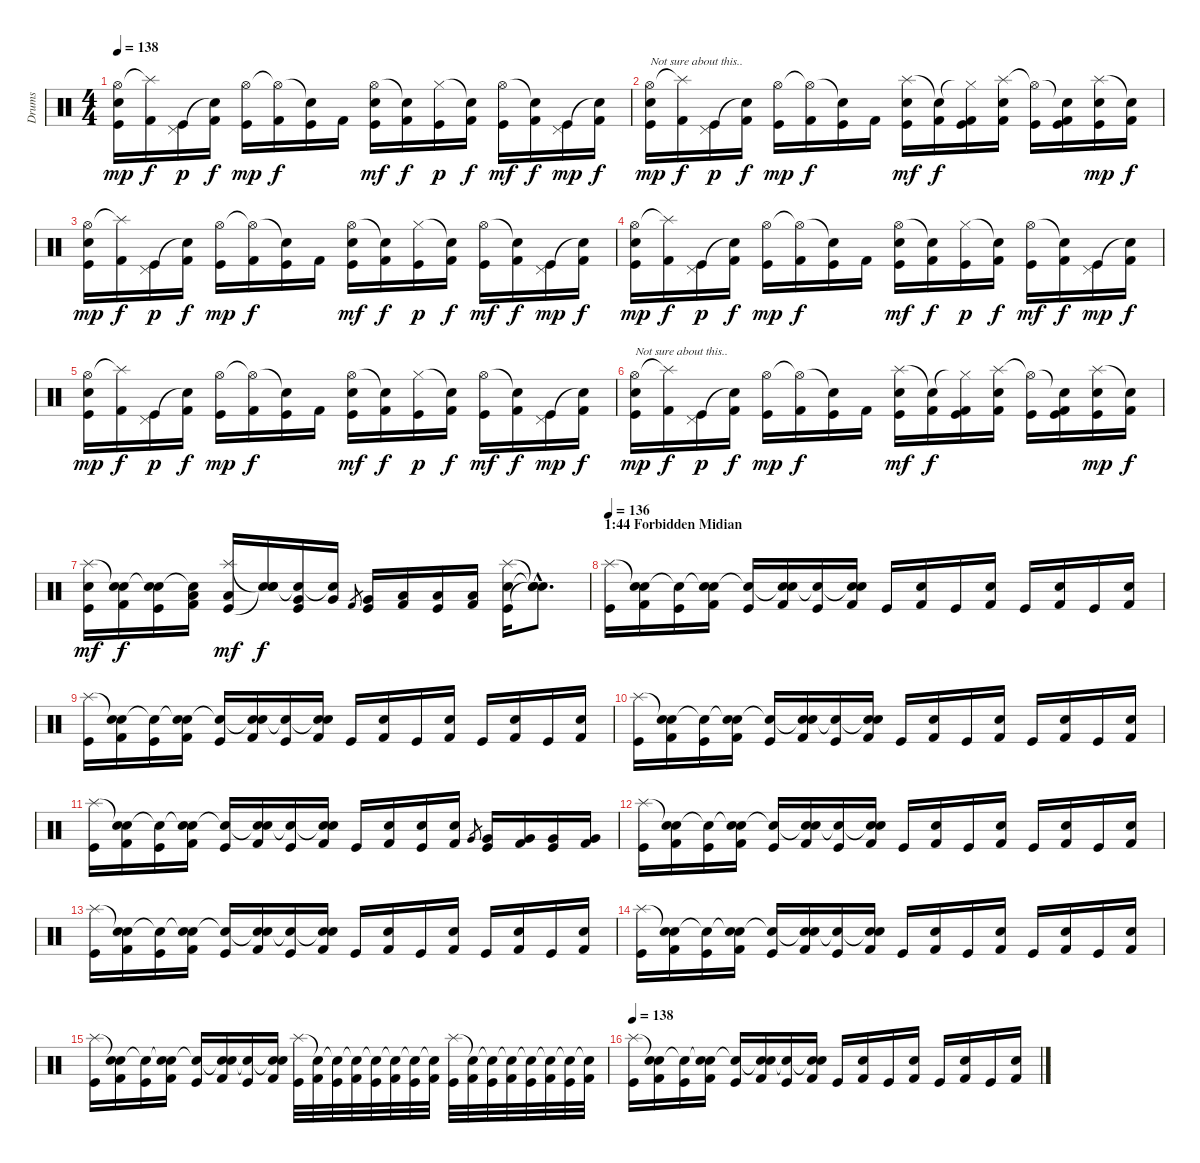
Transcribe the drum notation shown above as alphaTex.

\track ("Drums" "Drums") {instrument percussion}
\staff {score}
\articulation defaults
\ts (4 4)
\tempo 138
\clef neutral
\ks c
("Hi-Hat (open)" "Snare (hit) 2" "Kick (hit)").16{dy mp} ("Splash (hit)"{t} "Kick (hit) 2").16{dy f} ("Pedal Hi-Hat (hit)" "Kick (hit)").16{dy p} ("Snare (hit)"{t} "Kick (hit) 2").16{dy f} ("Hi-Hat (open)" "Kick (hit)").16{dy mp} ("Hi-Hat (open)"{t} "Kick (hit) 2").16{dy f} ("Snare (hit)"{t} "Kick (hit)").16 "Kick (hit) 2".16 ("Hi-Hat (open)" "Snare (hit) 2" "Kick (hit)").16{dy mf} ("Snare (hit)"{t} "Kick (hit) 2").16{dy f} ("Hi-Hat (closed)" "Kick (hit)").16{dy p} ("Snare (hit)"{t} "Kick (hit) 2").16{dy f} ("Hi-Hat (open)" "Kick (hit)").16{dy mf} ("Snare (hit)"{t} "Kick (hit) 2").16{dy f} ("Pedal Hi-Hat (hit)" "Kick (hit)").16{dy mp} ("Snare (hit)"{t} "Kick (hit) 2").16{dy f} |
("Hi-Hat (open)" "Snare (hit) 2" "Kick (hit)").16{txt "Not sure about this.." dy mp} ("Splash (hit)"{t} "Kick (hit) 2").16{dy f} ("Pedal Hi-Hat (hit)" "Kick (hit)").16{dy p} ("Snare (hit)"{t} "Kick (hit) 2").16{dy f} ("Hi-Hat (open)" "Kick (hit)").16{dy mp} ("Hi-Hat (open)"{t} "Kick (hit) 2").16{dy f} ("Snare (hit)"{t} "Kick (hit)").16 "Kick (hit) 2".16 ("Splash (hit)" "Snare (hit) 2" "Kick (hit)").16{dy mf} ("Snare (hit)"{t} "Kick (hit) 2").16{dy f} ("Hi-Hat (closed)"{t} "Kick (hit) 2" "Kick (hit)").16 ("Splash (hit)" "Snare (hit) 2" "Kick (hit) 2").16 ("Hi-Hat (open)"{t} "Kick (hit)").16 ("Snare (hit)"{t} "Kick (hit)" "Kick (hit) 2").16 ("Splash (hit)" "Snare (hit) 2" "Kick (hit)").16{dy mp} ("Snare (hit)"{t} "Kick (hit) 2").16{dy f} |
("Hi-Hat (open)" "Snare (hit) 2" "Kick (hit)").16{dy mp} ("Splash (hit)"{t} "Kick (hit) 2").16{dy f} ("Pedal Hi-Hat (hit)" "Kick (hit)").16{dy p} ("Snare (hit)"{t} "Kick (hit) 2").16{dy f} ("Hi-Hat (open)" "Kick (hit)").16{dy mp} ("Hi-Hat (open)"{t} "Kick (hit) 2").16{dy f} ("Snare (hit)"{t} "Kick (hit)").16 "Kick (hit) 2".16 ("Hi-Hat (open)" "Snare (hit) 2" "Kick (hit)").16{dy mf} ("Snare (hit)"{t} "Kick (hit) 2").16{dy f} ("Hi-Hat (closed)" "Kick (hit)").16{dy p} ("Snare (hit)"{t} "Kick (hit) 2").16{dy f} ("Hi-Hat (open)" "Kick (hit)").16{dy mf} ("Snare (hit)"{t} "Kick (hit) 2").16{dy f} ("Pedal Hi-Hat (hit)" "Kick (hit)").16{dy mp} ("Snare (hit)"{t} "Kick (hit) 2").16{dy f} |
("Hi-Hat (open)" "Snare (hit) 2" "Kick (hit)").16{dy mp} ("Splash (hit)"{t} "Kick (hit) 2").16{dy f} ("Pedal Hi-Hat (hit)" "Kick (hit)").16{dy p} ("Snare (hit)"{t} "Kick (hit) 2").16{dy f} ("Hi-Hat (open)" "Kick (hit)").16{dy mp} ("Hi-Hat (open)"{t} "Kick (hit) 2").16{dy f} ("Snare (hit)"{t} "Kick (hit)").16 "Kick (hit) 2".16 ("Hi-Hat (open)" "Snare (hit) 2" "Kick (hit)").16{dy mf} ("Snare (hit)"{t} "Kick (hit) 2").16{dy f} ("Hi-Hat (closed)" "Kick (hit)").16{dy p} ("Snare (hit)"{t} "Kick (hit) 2").16{dy f} ("Hi-Hat (open)" "Kick (hit)").16{dy mf} ("Snare (hit)"{t} "Kick (hit) 2").16{dy f} ("Pedal Hi-Hat (hit)" "Kick (hit)").16{dy mp} ("Snare (hit)"{t} "Kick (hit) 2").16{dy f} |
("Hi-Hat (open)" "Snare (hit) 2" "Kick (hit)").16{dy mp} ("Splash (hit)"{t} "Kick (hit) 2").16{dy f} ("Pedal Hi-Hat (hit)" "Kick (hit)").16{dy p} ("Snare (hit)"{t} "Kick (hit) 2").16{dy f} ("Hi-Hat (open)" "Kick (hit)").16{dy mp} ("Hi-Hat (open)"{t} "Kick (hit) 2").16{dy f} ("Snare (hit)"{t} "Kick (hit)").16 "Kick (hit) 2".16 ("Hi-Hat (open)" "Snare (hit) 2" "Kick (hit)").16{dy mf} ("Snare (hit)"{t} "Kick (hit) 2").16{dy f} ("Hi-Hat (closed)" "Kick (hit)").16{dy p} ("Snare (hit)"{t} "Kick (hit) 2").16{dy f} ("Hi-Hat (open)" "Kick (hit)").16{dy mf} ("Snare (hit)"{t} "Kick (hit) 2").16{dy f} ("Pedal Hi-Hat (hit)" "Kick (hit)").16{dy mp} ("Snare (hit)"{t} "Kick (hit) 2").16{dy f} |
("Hi-Hat (open)" "Snare (hit) 2" "Kick (hit)").16{txt "Not sure about this.." dy mp} ("Splash (hit)"{t} "Kick (hit) 2").16{dy f} ("Pedal Hi-Hat (hit)" "Kick (hit)").16{dy p} ("Snare (hit)"{t} "Kick (hit) 2").16{dy f} ("Hi-Hat (open)" "Kick (hit)").16{dy mp} ("Hi-Hat (open)"{t} "Kick (hit) 2").16{dy f} ("Snare (hit)"{t} "Kick (hit)").16 "Kick (hit) 2".16 ("Splash (hit)" "Snare (hit) 2" "Kick (hit)").16{dy mf} ("Snare (hit)"{t} "Kick (hit) 2").16{dy f} ("Hi-Hat (closed)"{t} "Kick (hit) 2" "Kick (hit)").16 ("Splash (hit)" "Snare (hit) 2" "Kick (hit) 2").16 ("Hi-Hat (open)"{t} "Kick (hit)").16 ("Snare (hit)"{t} "Kick (hit)" "Kick (hit) 2").16 ("Splash (hit)" "Snare (hit) 2" "Kick (hit)").16{dy mp} ("Snare (hit)"{t} "Kick (hit) 2").16{dy f} |
("Splash (hit)" "Snare (hit) 2" "Kick (hit)").16{dy mf} ("Snare (hit)"{t} "Snare (hit) 2" "Kick (hit) 2").16{dy f} ("Snare (hit)"{t} "Snare (hit) 2" "Kick (hit)").16 ("Snare (hit)"{t} "Low Tom (hit)" "Kick (hit) 2").16 ("Splash (hit)" "Low Tom (hit)" "Kick (hit)").16{dy mf} ("Snare (hit)"{t} "Snare (hit) 2" "Snare (hit)"{t}).16{dy f} ("Snare (hit)"{t} "Very Low Tom (hit)" "Kick (hit)").16 ("Snare (hit)"{t} "Very Low Tom (hit)").16 "Kick (hit) 2".8{gr} ("Very Low Tom (hit)" "Kick (hit)").16 ("Low Floor Tom (hit)" "Kick (hit) 2").16 ("Low Floor Tom (hit)" "Kick (hit)").16 ("Low Floor Tom (hit)" "Kick (hit) 2").16 ("Splash (hit)" "Snare (hit) 2" "Kick (hit)").16 ("Snare (hit)"{hac t} "Snare (hit)"{hac t} "Snare (hit)"{hac t}).8{d} |
\section ("" "1:44 Forbidden Midian")
\tempo 136
("Splash (hit)" "Kick (hit)").16 ("Snare (hit)"{t} "Snare (hit) 2" "Kick (hit) 2").16 ("Snare (hit)"{t} "Kick (hit)").16 ("Snare (hit)"{t} "Snare (hit) 2" "Kick (hit) 2").16 ("Snare (hit)"{t} "Kick (hit)").16 ("Snare (hit)"{t} "Snare (hit) 2" "Kick (hit) 2").16 ("Snare (hit)"{t} "Kick (hit)").16 ("Snare (hit)"{t} "Snare (hit) 2" "Kick (hit) 2").16 "Kick (hit)".16 ("Snare (hit) 2" "Kick (hit) 2").16 "Kick (hit)".16 ("Snare (hit) 2" "Kick (hit) 2").16 "Kick (hit)".16 ("Snare (hit) 2" "Kick (hit) 2").16 "Kick (hit)".16 ("Snare (hit) 2" "Kick (hit) 2").16 |
("Splash (hit)" "Kick (hit)").16 ("Snare (hit)"{t} "Snare (hit) 2" "Kick (hit) 2").16 ("Snare (hit)"{t} "Kick (hit)").16 ("Snare (hit)"{t} "Snare (hit) 2" "Kick (hit) 2").16 ("Snare (hit)"{t} "Kick (hit)").16 ("Snare (hit)"{t} "Snare (hit) 2" "Kick (hit) 2").16 ("Snare (hit)"{t} "Kick (hit)").16 ("Snare (hit)"{t} "Snare (hit) 2" "Kick (hit) 2").16 "Kick (hit)".16 ("Snare (hit) 2" "Kick (hit) 2").16 "Kick (hit)".16 ("Snare (hit) 2" "Kick (hit) 2").16 "Kick (hit)".16 ("Snare (hit) 2" "Kick (hit) 2").16 "Kick (hit)".16 ("Snare (hit) 2" "Kick (hit) 2").16 |
("Splash (hit)" "Kick (hit)").16 ("Snare (hit)"{t} "Snare (hit) 2" "Kick (hit) 2").16 ("Snare (hit)"{t} "Kick (hit)").16 ("Snare (hit)"{t} "Snare (hit) 2" "Kick (hit) 2").16 ("Snare (hit)"{t} "Kick (hit)").16 ("Snare (hit)"{t} "Snare (hit) 2" "Kick (hit) 2").16 ("Snare (hit)"{t} "Kick (hit)").16 ("Snare (hit)"{t} "Snare (hit) 2" "Kick (hit) 2").16 "Kick (hit)".16 ("Snare (hit) 2" "Kick (hit) 2").16 "Kick (hit)".16 ("Snare (hit) 2" "Kick (hit) 2").16 "Kick (hit)".16 ("Snare (hit) 2" "Kick (hit) 2").16 "Kick (hit)".16 ("Snare (hit) 2" "Kick (hit) 2").16 |
("Splash (hit)" "Kick (hit)").16 ("Snare (hit)"{t} "Snare (hit) 2" "Kick (hit) 2").16 ("Snare (hit)"{t} "Kick (hit)").16 ("Snare (hit)"{t} "Snare (hit) 2" "Kick (hit) 2").16 ("Snare (hit)"{t} "Kick (hit)").16 ("Snare (hit)"{t} "Snare (hit) 2" "Kick (hit) 2").16 ("Snare (hit)"{t} "Kick (hit)").16 ("Snare (hit)"{t} "Snare (hit) 2" "Kick (hit) 2").16 "Kick (hit)".16 ("Snare (hit) 2" "Kick (hit) 2").16 ("Snare (hit) 2" "Kick (hit)").16 ("Snare (hit) 2" "Kick (hit) 2").16 "Very Low Tom (hit)".8{gr} ("Very Low Tom (hit)" "Kick (hit)").16 ("Very Low Tom (hit)" "Kick (hit) 2").16 ("Very Low Tom (hit)" "Kick (hit)").16 ("Very Low Tom (hit)" "Kick (hit) 2").16 |
("Splash (hit)" "Kick (hit)").16 ("Snare (hit)"{t} "Snare (hit) 2" "Kick (hit) 2").16 ("Snare (hit)"{t} "Kick (hit)").16 ("Snare (hit)"{t} "Snare (hit) 2" "Kick (hit) 2").16 ("Snare (hit)"{t} "Kick (hit)").16 ("Snare (hit)"{t} "Snare (hit) 2" "Kick (hit) 2").16 ("Snare (hit)"{t} "Kick (hit)").16 ("Snare (hit)"{t} "Snare (hit) 2" "Kick (hit) 2").16 "Kick (hit)".16 ("Snare (hit) 2" "Kick (hit) 2").16 "Kick (hit)".16 ("Snare (hit) 2" "Kick (hit) 2").16 "Kick (hit)".16 ("Snare (hit) 2" "Kick (hit) 2").16 "Kick (hit)".16 ("Snare (hit) 2" "Kick (hit) 2").16 |
("Splash (hit)" "Kick (hit)").16 ("Snare (hit)"{t} "Snare (hit) 2" "Kick (hit) 2").16 ("Snare (hit)"{t} "Kick (hit)").16 ("Snare (hit)"{t} "Snare (hit) 2" "Kick (hit) 2").16 ("Snare (hit)"{t} "Kick (hit)").16 ("Snare (hit)"{t} "Snare (hit) 2" "Kick (hit) 2").16 ("Snare (hit)"{t} "Kick (hit)").16 ("Snare (hit)"{t} "Snare (hit) 2" "Kick (hit) 2").16 "Kick (hit)".16 ("Snare (hit) 2" "Kick (hit) 2").16 "Kick (hit)".16 ("Snare (hit) 2" "Kick (hit) 2").16 "Kick (hit)".16 ("Snare (hit) 2" "Kick (hit) 2").16 "Kick (hit)".16 ("Snare (hit) 2" "Kick (hit) 2").16 |
("Splash (hit)" "Kick (hit)").16 ("Snare (hit)"{t} "Snare (hit) 2" "Kick (hit) 2").16 ("Snare (hit)"{t} "Kick (hit)").16 ("Snare (hit)"{t} "Snare (hit) 2" "Kick (hit) 2").16 ("Snare (hit)"{t} "Kick (hit)").16 ("Snare (hit)"{t} "Snare (hit) 2" "Kick (hit) 2").16 ("Snare (hit)"{t} "Kick (hit)").16 ("Snare (hit)"{t} "Snare (hit) 2" "Kick (hit) 2").16 "Kick (hit)".16 ("Snare (hit) 2" "Kick (hit) 2").16 "Kick (hit)".16 ("Snare (hit) 2" "Kick (hit) 2").16 "Kick (hit)".16 ("Snare (hit) 2" "Kick (hit) 2").16 "Kick (hit)".16 ("Snare (hit) 2" "Kick (hit) 2").16 |
("Splash (hit)" "Kick (hit)").16 ("Snare (hit)"{t} "Snare (hit) 2" "Kick (hit) 2").16 ("Snare (hit)"{t} "Kick (hit)").16 ("Snare (hit)"{t} "Snare (hit) 2" "Kick (hit) 2").16 ("Snare (hit)"{t} "Kick (hit)").16 ("Snare (hit)"{t} "Snare (hit) 2" "Kick (hit) 2").16 ("Snare (hit)"{t} "Kick (hit)").16 ("Snare (hit)"{t} "Snare (hit) 2" "Kick (hit) 2").16 ("Splash (hit)" "Kick (hit)").32 ("Snare (hit)"{t} "Kick (hit) 2").32 ("Snare (hit)"{t} "Kick (hit)").32 ("Snare (hit)"{t} "Kick (hit) 2").32 ("Snare (hit)"{t} "Kick (hit)").32 ("Snare (hit)"{t} "Kick (hit) 2").32 ("Snare (hit)"{t} "Kick (hit)").32 ("Snare (hit)"{t} "Kick (hit) 2").32 ("Splash (hit)" "Kick (hit)").32 ("Snare (hit)"{t} "Kick (hit) 2").32 ("Snare (hit)"{t} "Kick (hit)").32 ("Snare (hit)"{t} "Kick (hit) 2").32 ("Snare (hit)"{t} "Kick (hit)").32 ("Snare (hit)"{t} "Kick (hit) 2").32 ("Snare (hit)"{t} "Kick (hit)").32 ("Snare (hit)"{t} "Kick (hit) 2").32 |
\tempo 138
("Splash (hit)" "Kick (hit)").16 ("Snare (hit)"{t} "Snare (hit) 2" "Kick (hit) 2").16 ("Snare (hit)"{t} "Kick (hit)").16 ("Snare (hit)"{t} "Snare (hit) 2" "Kick (hit) 2").16 ("Snare (hit)"{t} "Kick (hit)").16 ("Snare (hit)"{t} "Snare (hit) 2" "Kick (hit) 2").16 ("Snare (hit)"{t} "Kick (hit)").16 ("Snare (hit)"{t} "Snare (hit) 2" "Kick (hit) 2").16 "Kick (hit)".16 ("Snare (hit) 2" "Kick (hit) 2").16 "Kick (hit)".16 ("Snare (hit) 2" "Kick (hit) 2").16 "Kick (hit)".16 ("Snare (hit) 2" "Kick (hit) 2").16 "Kick (hit)".16 ("Snare (hit) 2" "Kick (hit) 2").16
